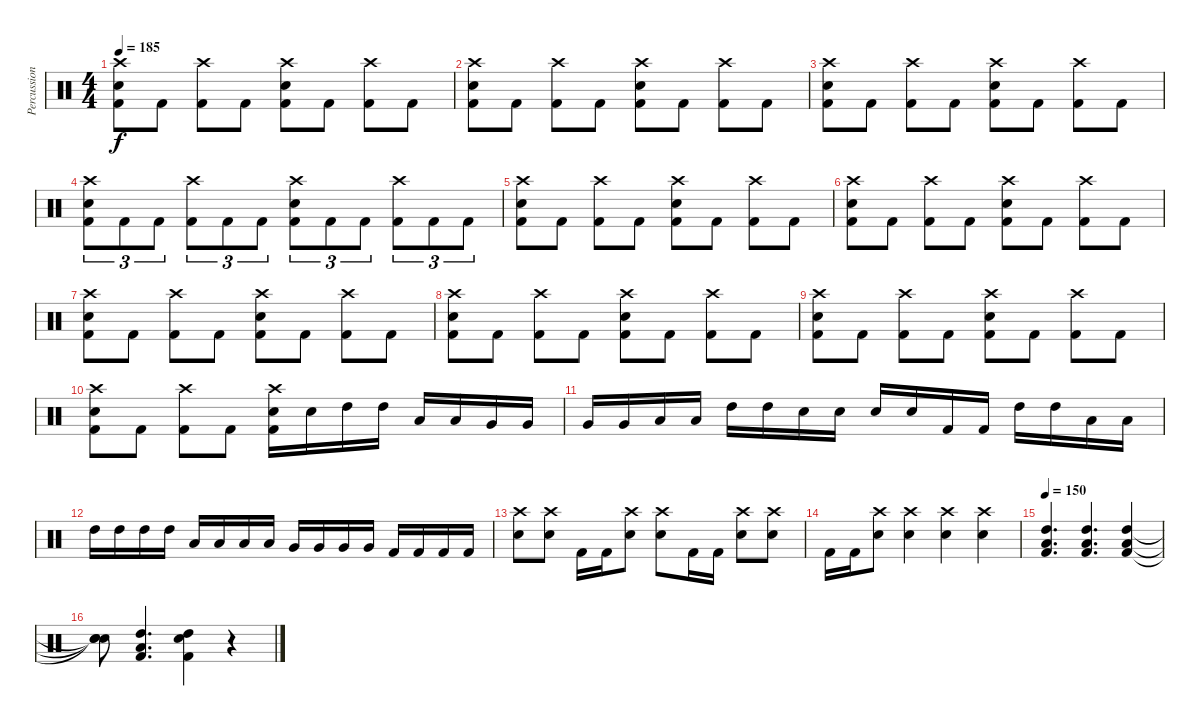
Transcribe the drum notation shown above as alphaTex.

\track ("Percussion" "Percussion") {instrument percussion}
\staff {score}
\articulation defaults
\ts (4 4)
\tempo 185
\clef neutral
\ks c
("Crash high (hit)" "Snare (hit) 2" "Kick (hit) 2").8{dy f} "Kick (hit) 2".8 ("Crash high (hit)" "Kick (hit) 2").8 "Kick (hit) 2".8 ("Crash high (hit)" "Snare (hit) 2" "Kick (hit) 2").8 "Kick (hit) 2".8 ("Crash high (hit)" "Kick (hit) 2").8 "Kick (hit) 2".8 |
("Crash high (hit)" "Snare (hit) 2" "Kick (hit) 2").8 "Kick (hit) 2".8 ("Crash high (hit)" "Kick (hit) 2").8 "Kick (hit) 2".8 ("Crash high (hit)" "Snare (hit) 2" "Kick (hit) 2").8 "Kick (hit) 2".8 ("Crash high (hit)" "Kick (hit) 2").8 "Kick (hit) 2".8 |
("Crash high (hit)" "Snare (hit) 2" "Kick (hit) 2").8 "Kick (hit) 2".8 ("Crash high (hit)" "Kick (hit) 2").8 "Kick (hit) 2".8 ("Crash high (hit)" "Snare (hit) 2" "Kick (hit) 2").8 "Kick (hit) 2".8 ("Crash high (hit)" "Kick (hit) 2").8 "Kick (hit) 2".8 |
("Crash high (hit)" "Snare (hit) 2" "Kick (hit) 2").8{tu (3 2)} "Kick (hit) 2".8{tu (3 2)} "Kick (hit) 2".8{tu (3 2)} ("Crash high (hit)" "Kick (hit) 2").8{tu (3 2)} "Kick (hit) 2".8{tu (3 2)} "Kick (hit) 2".8{tu (3 2)} ("Crash high (hit)" "Snare (hit) 2" "Kick (hit) 2").8{tu (3 2)} "Kick (hit) 2".8{tu (3 2)} "Kick (hit) 2".8{tu (3 2)} ("Crash high (hit)" "Kick (hit) 2").8{tu (3 2)} "Kick (hit) 2".8{tu (3 2)} "Kick (hit) 2".8{tu (3 2)} |
("Crash high (hit)" "Snare (hit) 2" "Kick (hit) 2").8 "Kick (hit) 2".8 ("Crash high (hit)" "Kick (hit) 2").8 "Kick (hit) 2".8 ("Crash high (hit)" "Snare (hit) 2" "Kick (hit) 2").8 "Kick (hit) 2".8 ("Crash high (hit)" "Kick (hit) 2").8 "Kick (hit) 2".8 |
("Crash high (hit)" "Snare (hit) 2" "Kick (hit) 2").8 "Kick (hit) 2".8 ("Crash high (hit)" "Kick (hit) 2").8 "Kick (hit) 2".8 ("Crash high (hit)" "Snare (hit) 2" "Kick (hit) 2").8 "Kick (hit) 2".8 ("Crash high (hit)" "Kick (hit) 2").8 "Kick (hit) 2".8 |
("Crash high (hit)" "Snare (hit) 2" "Kick (hit) 2").8 "Kick (hit) 2".8 ("Crash high (hit)" "Kick (hit) 2").8 "Kick (hit) 2".8 ("Crash high (hit)" "Snare (hit) 2" "Kick (hit) 2").8 "Kick (hit) 2".8 ("Crash high (hit)" "Kick (hit) 2").8 "Kick (hit) 2".8 |
("Crash high (hit)" "Snare (hit) 2" "Kick (hit) 2").8 "Kick (hit) 2".8 ("Crash high (hit)" "Kick (hit) 2").8 "Kick (hit) 2".8 ("Crash high (hit)" "Snare (hit) 2" "Kick (hit) 2").8 "Kick (hit) 2".8 ("Crash high (hit)" "Kick (hit) 2").8 "Kick (hit) 2".8 |
("Crash high (hit)" "Snare (hit) 2" "Kick (hit) 2").8 "Kick (hit) 2".8 ("Crash high (hit)" "Kick (hit) 2").8 "Kick (hit) 2".8 ("Crash high (hit)" "Snare (hit) 2" "Kick (hit) 2").8 "Kick (hit) 2".8 ("Crash high (hit)" "Kick (hit) 2").8 "Kick (hit) 2".8 |
("Crash high (hit)" "Snare (hit) 2" "Kick (hit) 2").8 "Kick (hit) 2".8 ("Crash high (hit)" "Kick (hit) 2").8 "Kick (hit) 2".8 ("Crash high (hit)" "Snare (hit) 2" "Kick (hit) 2").16 "Snare (hit) 2".16 "High Tom (hit)".16 "High Tom (hit)".16 "Low Tom (hit)".16 "Low Tom (hit)".16 "Very Low Tom (hit)".16 "Very Low Tom (hit)".16 |
"Very Low Tom (hit)".16 "Very Low Tom (hit)".16 "Low Tom (hit)".16 "Low Tom (hit)".16 "High Tom (hit)".16 "High Tom (hit)".16 "Snare (hit) 2".16 "Snare (hit) 2".16 "Snare (hit) 2".16 "Snare (hit) 2".16 "Kick (hit) 2".16 "Kick (hit) 2".16 "High Tom (hit)".16 "High Tom (hit)".16 "Low Tom (hit)".16 "Low Tom (hit)".16 |
"High Tom (hit)".16 "High Tom (hit)".16 "High Tom (hit)".16 "High Tom (hit)".16 "Low Tom (hit)".16 "Low Tom (hit)".16 "Low Tom (hit)".16 "Low Tom (hit)".16 "Very Low Tom (hit)".16 "Very Low Tom (hit)".16 "Very Low Tom (hit)".16 "Very Low Tom (hit)".16 "Kick (hit) 2".16 "Kick (hit) 2".16 "Kick (hit) 2".16 "Kick (hit) 2".16 |
("Crash high (hit)" "Snare (hit) 2").8 ("Crash high (hit)" "Snare (hit) 2").8 "Kick (hit) 2".16 "Kick (hit) 2".16 ("Crash high (hit)" "Snare (hit) 2").8 ("Crash high (hit)" "Snare (hit) 2").8 "Kick (hit) 2".16 "Kick (hit) 2".16 ("Crash high (hit)" "Snare (hit) 2").8 ("Crash high (hit)" "Snare (hit) 2").8 |
"Kick (hit) 2".16 "Kick (hit) 2".16 ("Crash high (hit)" "Snare (hit) 2").8 ("Crash high (hit)" "Snare (hit) 2").4 ("Crash high (hit)" "Snare (hit) 2").4 ("Crash high (hit)" "Snare (hit) 2").4 |
\tempo 150
("Low Tom (hit)" "High Tom (hit)" "Kick (hit) 2").4{d} ("Low Tom (hit)" "High Tom (hit)" "Kick (hit) 2").4{d} ("Low Tom (hit)" "High Tom (hit)" "Kick (hit) 2").4 |
("Snare (hit)"{t} "Snare (hit)"{t} "Snare (hit)"{t}).8 ("Low Tom (hit)" "High Tom (hit)" "Kick (hit) 2").4{d} ("Snare (hit) 2" "High Tom (hit)" "Kick (hit) 2").4 r.4
